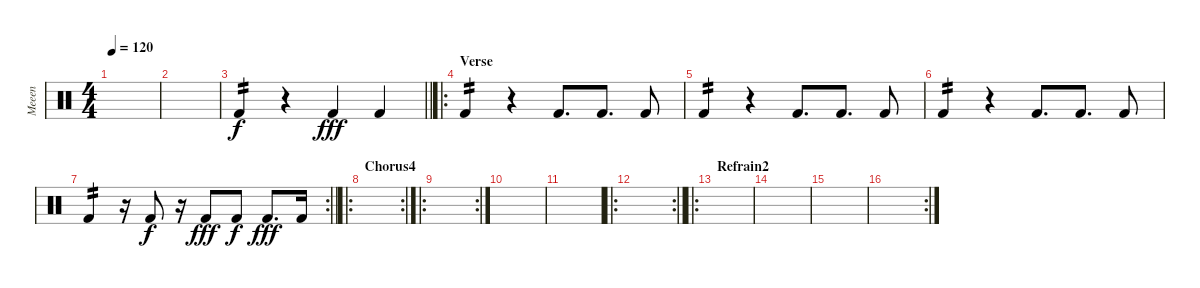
\track ("Meeen" "Meeen") {instrument percussion}
\staff {score}
\articulation defaults
\ts (4 4)
\tempo 120
\clef neutral
\ks c
|
|
\barLineRight lightlight "Kick (hit) 2".4{tp 2}
r.4 "Kick (hit) 2".4{dy fff} "Kick (hit) 2".4 |
\ro
\section ("" "Verse")
"Kick (hit) 2".4{tp 2} r.4 "Kick (hit) 2".8{d} "Kick (hit) 2".8{d} "Kick (hit) 2".8 |
"Kick (hit) 2".4{tp 2} r.4 "Kick (hit) 2".8{d} "Kick (hit) 2".8{d} "Kick (hit) 2".8 |
"Kick (hit) 2".4{tp 2} r.4 "Kick (hit) 2".8{d} "Kick (hit) 2".8{d} "Kick (hit) 2".8 |
\rc 2
\barLineRight lightlight "Kick (hit) 2".4{tp 2}
r.16 "Kick (hit) 2".8{dy f} r.16 "Kick (hit) 2".8{dy fff} "Kick (hit) 2".8{dy f} "Kick (hit) 2".8{d dy fff} "Kick (hit) 2".16 |
\ro
\rc 2
\section ("" "Chorus4")
|
\ro
\rc 2
|
|
|
\ro
\rc 2
\barLineRight lightlight
|
\ro
\section ("" "Refrain2")
|
|
|
\rc 2
